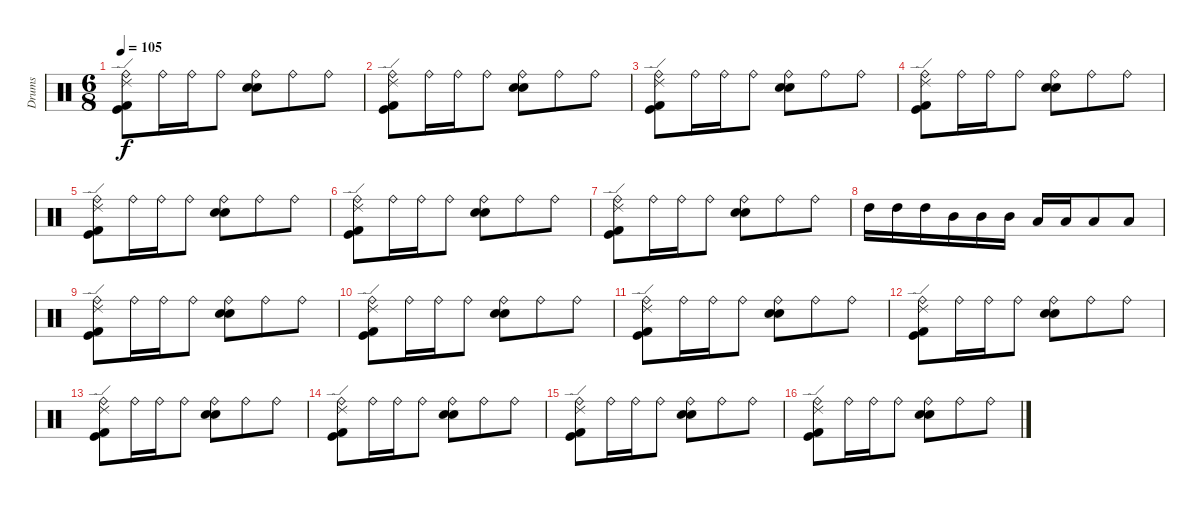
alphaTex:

\track ("Drums" "Drums") {instrument percussion}
\staff {score}
\articulation defaults
\ts (6 8)
\tempo 105
\clef neutral
\ks c
("Ride (bell)" "Ride (edge) 2" "Kick (hit) 2" "Kick (hit)").8{dy f} "Ride (bell)".16 "Ride (bell)".16 "Ride (bell)".8 ("Ride (bell)" "Snare (hit) 2" "Electric Snare (hit)").8 "Ride (bell)".8 "Ride (bell)".8 |
("Ride (bell)" "Ride (edge) 2" "Kick (hit) 2" "Kick (hit)").8 "Ride (bell)".16 "Ride (bell)".16 "Ride (bell)".8 ("Ride (bell)" "Snare (hit) 2" "Electric Snare (hit)").8 "Ride (bell)".8 "Ride (bell)".8 |
("Ride (bell)" "Ride (edge) 2" "Kick (hit) 2" "Kick (hit)").8 "Ride (bell)".16 "Ride (bell)".16 "Ride (bell)".8 ("Ride (bell)" "Snare (hit) 2" "Electric Snare (hit)").8 "Ride (bell)".8 "Ride (bell)".8 |
("Ride (bell)" "Ride (edge) 2" "Kick (hit) 2" "Kick (hit)").8 "Ride (bell)".16 "Ride (bell)".16 "Ride (bell)".8 ("Ride (bell)" "Snare (hit) 2" "Electric Snare (hit)").8 "Ride (bell)".8 "Ride (bell)".8 |
("Ride (bell)" "Ride (edge) 2" "Kick (hit) 2" "Kick (hit)").8 "Ride (bell)".16 "Ride (bell)".16 "Ride (bell)".8 ("Ride (bell)" "Snare (hit) 2" "Electric Snare (hit)").8 "Ride (bell)".8 "Ride (bell)".8 |
("Ride (bell)" "Ride (edge) 2" "Kick (hit) 2" "Kick (hit)").8 "Ride (bell)".16 "Ride (bell)".16 "Ride (bell)".8 ("Ride (bell)" "Snare (hit) 2" "Electric Snare (hit)").8 "Ride (bell)".8 "Ride (bell)".8 |
("Ride (bell)" "Ride (edge) 2" "Kick (hit) 2" "Kick (hit)").8 "Ride (bell)".16 "Ride (bell)".16 "Ride (bell)".8 ("Ride (bell)" "Snare (hit) 2" "Electric Snare (hit)").8 "Ride (bell)".8 "Ride (bell)".8 |
"High Tom (hit)".16{volume 16 balance 0} "High Tom (hit)".16 "High Tom (hit)".16 "Mid Tom (hit)".16 "Mid Tom (hit)".16 "Mid Tom (hit)".16 "Low Tom (hit)".16{balance 16} "Low Tom (hit)".16 "Low Tom (hit)".8 "Low Tom (hit)".8 |
("Ride (bell)" "Ride (edge) 2" "Kick (hit) 2" "Kick (hit)").8{volume 13 balance 8} "Ride (bell)".16 "Ride (bell)".16 "Ride (bell)".8 ("Ride (bell)" "Snare (hit) 2" "Electric Snare (hit)").8 "Ride (bell)".8 "Ride (bell)".8 |
("Ride (bell)" "Ride (edge) 2" "Kick (hit) 2" "Kick (hit)").8 "Ride (bell)".16 "Ride (bell)".16 "Ride (bell)".8 ("Ride (bell)" "Snare (hit) 2" "Electric Snare (hit)").8 "Ride (bell)".8 "Ride (bell)".8 |
("Ride (bell)" "Ride (edge) 2" "Kick (hit) 2" "Kick (hit)").8 "Ride (bell)".16 "Ride (bell)".16 "Ride (bell)".8 ("Ride (bell)" "Snare (hit) 2" "Electric Snare (hit)").8 "Ride (bell)".8 "Ride (bell)".8 |
("Ride (bell)" "Ride (edge) 2" "Kick (hit) 2" "Kick (hit)").8 "Ride (bell)".16 "Ride (bell)".16 "Ride (bell)".8 ("Ride (bell)" "Snare (hit) 2" "Electric Snare (hit)").8 "Ride (bell)".8 "Ride (bell)".8 |
("Ride (bell)" "Ride (edge) 2" "Kick (hit) 2" "Kick (hit)").8 "Ride (bell)".16 "Ride (bell)".16 "Ride (bell)".8 ("Ride (bell)" "Snare (hit) 2" "Electric Snare (hit)").8 "Ride (bell)".8 "Ride (bell)".8 |
("Ride (bell)" "Ride (edge) 2" "Kick (hit) 2" "Kick (hit)").8 "Ride (bell)".16 "Ride (bell)".16 "Ride (bell)".8 ("Ride (bell)" "Snare (hit) 2" "Electric Snare (hit)").8 "Ride (bell)".8 "Ride (bell)".8 |
("Ride (bell)" "Ride (edge) 2" "Kick (hit) 2" "Kick (hit)").8 "Ride (bell)".16 "Ride (bell)".16 "Ride (bell)".8 ("Ride (bell)" "Snare (hit) 2" "Electric Snare (hit)").8 "Ride (bell)".8 "Ride (bell)".8 |
("Ride (bell)" "Ride (edge) 2" "Kick (hit) 2" "Kick (hit)").8 "Ride (bell)".16 "Ride (bell)".16 "Ride (bell)".8 ("Ride (bell)" "Snare (hit) 2" "Electric Snare (hit)").8 "Ride (bell)".8 "Ride (bell)".8
